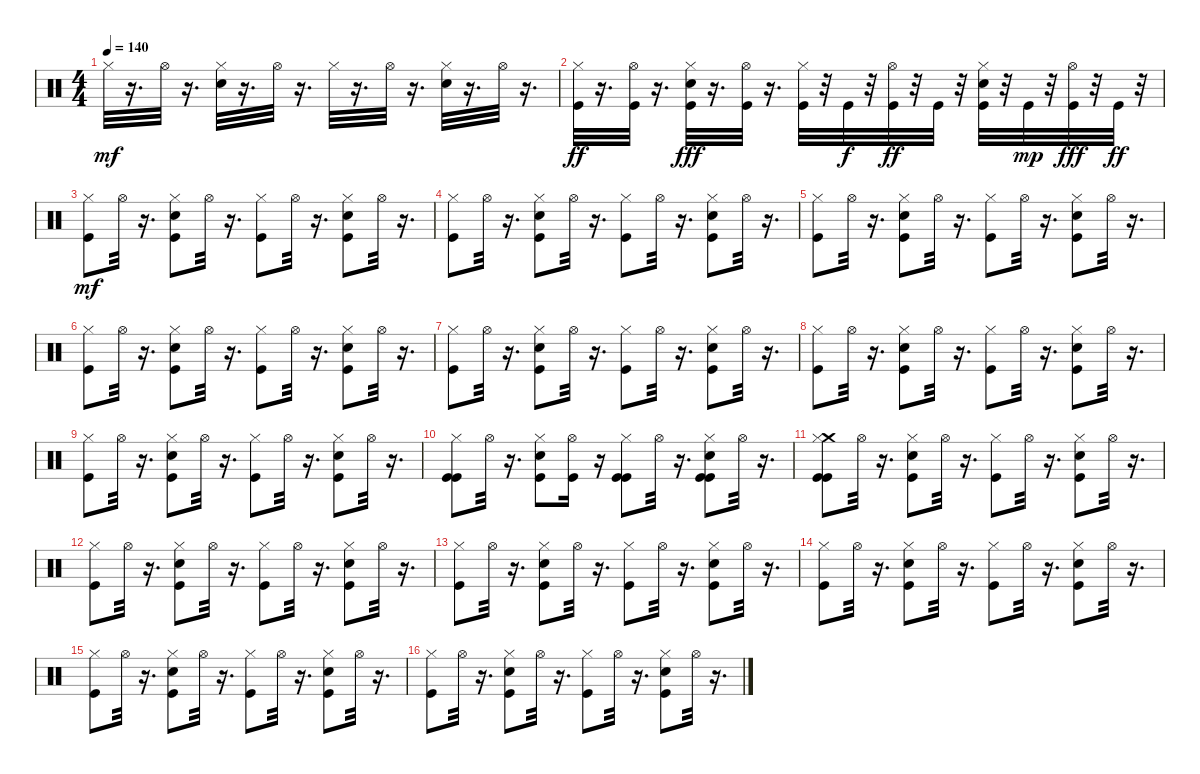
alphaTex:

\track "" {instrument percussion}
\staff {score}
\articulation defaults
\ts (4 4)
\tempo 140
\clef neutral
\ks c "Hi-Hat (closed)".32{dy mf}
r.16{d} "Hi-Hat (open)".32 r.16{d} ("Hand Clap (hit)" "Hi-Hat (closed)").32 r.16{d} "Hi-Hat (open)".32 r.16{d} "Hi-Hat (closed)".32 r.16{d} "Hi-Hat (open)".32 r.16{d} ("Hi-Hat (closed)" "Hand Clap (hit)").32 r.16{d} "Hi-Hat (open)".32 r.16{d} |
("Hi-Hat (closed)" "Kick (hit)").32{dy ff} r.16{d} ("Hi-Hat (open)" "Kick (hit)").32 r.16{d} ("Hi-Hat (closed)" "Hand Clap (hit)" "Kick (hit)").32{dy fff} r.16{d} ("Hi-Hat (open)" "Kick (hit)").32 r.16{d} ("Hi-Hat (closed)" "Kick (hit)").32 r.32 "Kick (hit)".32{dy f} r.32 ("Hi-Hat (open)" "Kick (hit)").32{dy ff} r.32 "Kick (hit)".32 r.32 ("Hand Clap (hit)" "Hi-Hat (closed)" "Kick (hit)").32 r.32 "Kick (hit)".32{dy mp} r.32 ("Hi-Hat (open)" "Kick (hit)").32{dy fff} r.32 "Kick (hit)".32{dy ff} r.32 |
("Kick (hit)" "Hi-Hat (closed)").8{dy mf} "Hi-Hat (open)".32 r.16{d} ("Kick (hit)" "Hi-Hat (closed)" "Hand Clap (hit)").8 "Hi-Hat (open)".32 r.16{d} ("Kick (hit)" "Hi-Hat (closed)").8 "Hi-Hat (open)".32 r.16{d} ("Kick (hit)" "Hand Clap (hit)" "Hi-Hat (closed)").8 "Hi-Hat (open)".32 r.16{d} |
("Kick (hit)" "Hi-Hat (closed)").8 "Hi-Hat (open)".32 r.16{d} ("Kick (hit)" "Hi-Hat (closed)" "Hand Clap (hit)").8 "Hi-Hat (open)".32 r.16{d} ("Kick (hit)" "Hi-Hat (closed)").8 "Hi-Hat (open)".32 r.16{d} ("Kick (hit)" "Hi-Hat (closed)" "Hand Clap (hit)").8 "Hi-Hat (open)".32 r.16{d} |
("Kick (hit)" "Hi-Hat (closed)").8 "Hi-Hat (open)".32 r.16{d} ("Kick (hit)" "Hand Clap (hit)" "Hi-Hat (closed)").8 "Hi-Hat (open)".32 r.16{d} ("Kick (hit)" "Hi-Hat (closed)").8 "Hi-Hat (open)".32 r.16{d} ("Kick (hit)" "Hand Clap (hit)" "Hi-Hat (closed)").8 "Hi-Hat (open)".32 r.16{d} |
("Kick (hit)" "Hi-Hat (closed)").8 "Hi-Hat (open)".32 r.16{d} ("Kick (hit)" "Hi-Hat (closed)" "Hand Clap (hit)").8 "Hi-Hat (open)".32 r.16{d} ("Kick (hit)" "Hi-Hat (closed)").8 "Hi-Hat (open)".32 r.16{d} ("Kick (hit)" "Hand Clap (hit)" "Hi-Hat (closed)").8 "Hi-Hat (open)".32 r.16{d} |
("Kick (hit)" "Hi-Hat (closed)").8 "Hi-Hat (open)".32 r.16{d} ("Kick (hit)" "Hand Clap (hit)" "Hi-Hat (closed)").8 "Hi-Hat (open)".32 r.16{d} ("Kick (hit)" "Hi-Hat (closed)").8 "Hi-Hat (open)".32 r.16{d} ("Kick (hit)" "Hi-Hat (closed)" "Hand Clap (hit)").8 "Hi-Hat (open)".32 r.16{d} |
("Kick (hit)" "Hi-Hat (closed)").8 "Hi-Hat (open)".32 r.16{d} ("Kick (hit)" "Hi-Hat (closed)" "Hand Clap (hit)").8 "Hi-Hat (open)".32 r.16{d} ("Kick (hit)" "Hi-Hat (closed)").8 "Hi-Hat (open)".32 r.16{d} ("Kick (hit)" "Hand Clap (hit)" "Hi-Hat (closed)").8 "Hi-Hat (open)".32 r.16{d} |
("Kick (hit)" "Hi-Hat (closed)").8 "Hi-Hat (open)".32 r.16{d} ("Kick (hit)" "Hi-Hat (closed)" "Hand Clap (hit)").8 "Hi-Hat (open)".32 r.16{d} ("Kick (hit)" "Hi-Hat (closed)").8 "Hi-Hat (open)".32 r.16{d} ("Kick (hit)" "Hi-Hat (closed)" "Hand Clap (hit)").8 "Hi-Hat (open)".32 r.16{d} |
("Kick (hit)" "Kick (hit)" "Hi-Hat (closed)").8 "Hi-Hat (open)".32 r.16{d} ("Kick (hit)" "Hand Clap (hit)" "Hi-Hat (closed)").8 ("Kick (hit)" "Hi-Hat (open)").16 r.16 ("Kick (hit)" "Kick (hit)" "Hi-Hat (closed)").8 "Hi-Hat (open)".32 r.16{d} ("Kick (hit)" "Kick (hit)" "Hand Clap (hit)" "Hi-Hat (closed)").8 "Hi-Hat (open)".32 r.16{d} |
("Kick (hit)" "Kick (hit)" "Crash medium (hit)" "Hi-Hat (closed)").8 "Hi-Hat (open)".32 r.16{d} ("Kick (hit)" "Hand Clap (hit)" "Hi-Hat (closed)").8 "Hi-Hat (open)".32 r.16{d} ("Kick (hit)" "Hi-Hat (closed)").8 "Hi-Hat (open)".32 r.16{d} ("Kick (hit)" "Hi-Hat (closed)" "Hand Clap (hit)").8 "Hi-Hat (open)".32 r.16{d} |
("Kick (hit)" "Hi-Hat (closed)").8 "Hi-Hat (open)".32 r.16{d} ("Kick (hit)" "Hi-Hat (closed)" "Hand Clap (hit)").8 "Hi-Hat (open)".32 r.16{d} ("Kick (hit)" "Hi-Hat (closed)").8 "Hi-Hat (open)".32 r.16{d} ("Kick (hit)" "Hand Clap (hit)" "Hi-Hat (closed)").8 "Hi-Hat (open)".32 r.16{d} |
("Kick (hit)" "Hi-Hat (closed)").8 "Hi-Hat (open)".32 r.16{d} ("Kick (hit)" "Hand Clap (hit)" "Hi-Hat (closed)").8 "Hi-Hat (open)".32 r.16{d} ("Kick (hit)" "Hi-Hat (closed)").8 "Hi-Hat (open)".32 r.16{d} ("Kick (hit)" "Hi-Hat (closed)" "Hand Clap (hit)").8 "Hi-Hat (open)".32 r.16{d} |
("Kick (hit)" "Hi-Hat (closed)").8 "Hi-Hat (open)".32 r.16{d} ("Kick (hit)" "Hand Clap (hit)" "Hi-Hat (closed)").8 "Hi-Hat (open)".32 r.16{d} ("Kick (hit)" "Hi-Hat (closed)").8 "Hi-Hat (open)".32 r.16{d} ("Kick (hit)" "Hand Clap (hit)" "Hi-Hat (closed)").8 "Hi-Hat (open)".32 r.16{d} |
("Kick (hit)" "Hi-Hat (closed)").8 "Hi-Hat (open)".32 r.16{d} ("Kick (hit)" "Hand Clap (hit)" "Hi-Hat (closed)").8 "Hi-Hat (open)".32 r.16{d} ("Kick (hit)" "Hi-Hat (closed)").8 "Hi-Hat (open)".32 r.16{d} ("Kick (hit)" "Hi-Hat (closed)" "Hand Clap (hit)").8 "Hi-Hat (open)".32 r.16{d} |
("Kick (hit)" "Hi-Hat (closed)").8 "Hi-Hat (open)".32 r.16{d} ("Kick (hit)" "Hi-Hat (closed)" "Hand Clap (hit)").8 "Hi-Hat (open)".32 r.16{d} ("Kick (hit)" "Hi-Hat (closed)").8 "Hi-Hat (open)".32 r.16{d} ("Kick (hit)" "Hi-Hat (closed)" "Hand Clap (hit)").8 "Hi-Hat (open)".32 r.16{d}
